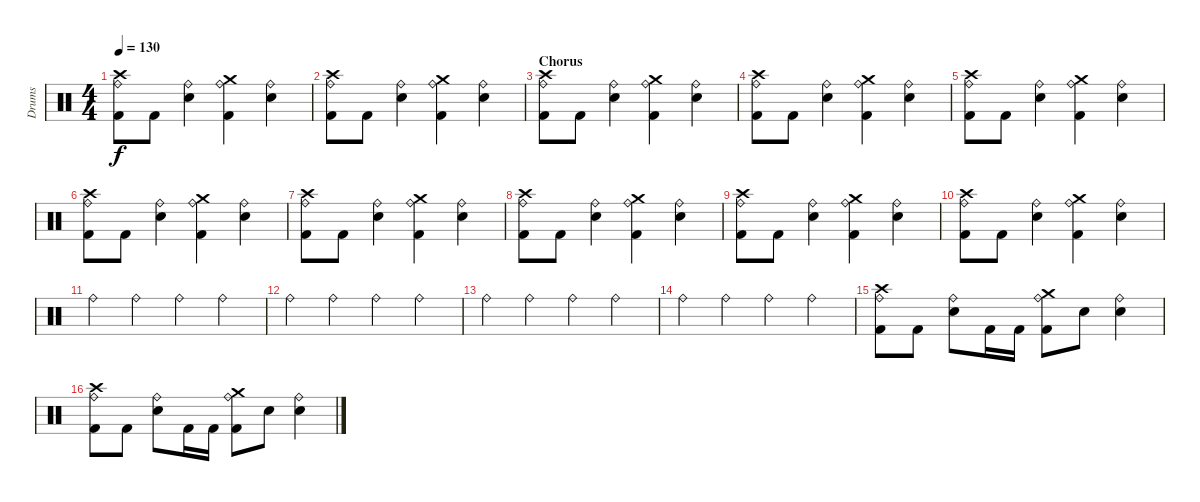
\track ("Drums" "Drums") {instrument percussion}
\staff {score}
\articulation defaults
\ts (4 4)
\tempo 130
\clef neutral
\ks c
("Crash high (hit)" "Ride (bell)" "Kick (hit) 2").8{dy f} "Kick (hit) 2".8 ("Ride (bell)" "Electric Snare (hit)").4 ("Crash medium (hit)" "Ride (bell)" "Kick (hit) 2").4 ("Ride (bell)" "Electric Snare (hit)").4 |
("Crash high (hit)" "Ride (bell)" "Kick (hit) 2").8 "Kick (hit) 2".8 ("Ride (bell)" "Electric Snare (hit)").4 ("Crash medium (hit)" "Ride (bell)" "Kick (hit) 2").4 ("Ride (bell)" "Electric Snare (hit)").4 |
\section ("" "Chorus")
("Crash high (hit)" "Ride (bell)" "Kick (hit) 2").8 "Kick (hit) 2".8 ("Ride (bell)" "Electric Snare (hit)").4 ("Crash medium (hit)" "Ride (bell)" "Kick (hit) 2").4 ("Ride (bell)" "Electric Snare (hit)").4 |
("Crash high (hit)" "Ride (bell)" "Kick (hit) 2").8 "Kick (hit) 2".8 ("Ride (bell)" "Electric Snare (hit)").4 ("Crash medium (hit)" "Ride (bell)" "Kick (hit) 2").4 ("Ride (bell)" "Electric Snare (hit)").4 |
("Crash high (hit)" "Ride (bell)" "Kick (hit) 2").8 "Kick (hit) 2".8 ("Ride (bell)" "Electric Snare (hit)").4 ("Crash medium (hit)" "Ride (bell)" "Kick (hit) 2").4 ("Ride (bell)" "Electric Snare (hit)").4 |
("Crash high (hit)" "Ride (bell)" "Kick (hit) 2").8 "Kick (hit) 2".8 ("Ride (bell)" "Electric Snare (hit)").4 ("Crash medium (hit)" "Ride (bell)" "Kick (hit) 2").4 ("Ride (bell)" "Electric Snare (hit)").4 |
("Crash high (hit)" "Ride (bell)" "Kick (hit) 2").8 "Kick (hit) 2".8 ("Ride (bell)" "Electric Snare (hit)").4 ("Crash medium (hit)" "Ride (bell)" "Kick (hit) 2").4 ("Ride (bell)" "Electric Snare (hit)").4 |
("Crash high (hit)" "Ride (bell)" "Kick (hit) 2").8 "Kick (hit) 2".8 ("Ride (bell)" "Electric Snare (hit)").4 ("Crash medium (hit)" "Ride (bell)" "Kick (hit) 2").4 ("Ride (bell)" "Electric Snare (hit)").4 |
("Crash high (hit)" "Ride (bell)" "Kick (hit) 2").8 "Kick (hit) 2".8 ("Ride (bell)" "Electric Snare (hit)").4 ("Crash medium (hit)" "Ride (bell)" "Kick (hit) 2").4 ("Ride (bell)" "Electric Snare (hit)").4 |
("Crash high (hit)" "Ride (bell)" "Kick (hit) 2").8 "Kick (hit) 2".8 ("Ride (bell)" "Electric Snare (hit)").4 ("Crash medium (hit)" "Ride (bell)" "Kick (hit) 2").4 ("Ride (bell)" "Electric Snare (hit)").4 |
"Ride (bell)".4 "Ride (bell)".4 "Ride (bell)".4 "Ride (bell)".4 |
"Ride (bell)".4 "Ride (bell)".4 "Ride (bell)".4 "Ride (bell)".4 |
"Ride (bell)".4 "Ride (bell)".4 "Ride (bell)".4 "Ride (bell)".4 |
"Ride (bell)".4 "Ride (bell)".4 "Ride (bell)".4 "Ride (bell)".4 |
("Crash high (hit)" "Ride (bell)" "Kick (hit) 2").8 "Kick (hit) 2".8 ("Ride (bell)" "Electric Snare (hit)").8 "Kick (hit) 2".16 "Kick (hit) 2".16 ("Crash medium (hit)" "Ride (bell)" "Kick (hit) 2").8 "Electric Snare (hit)".8 ("Ride (bell)" "Electric Snare (hit)").4 |
("Crash high (hit)" "Ride (bell)" "Kick (hit) 2").8 "Kick (hit) 2".8 ("Ride (bell)" "Electric Snare (hit)").8 "Kick (hit) 2".16 "Kick (hit) 2".16 ("Crash medium (hit)" "Ride (bell)" "Kick (hit) 2").8 "Electric Snare (hit)".8 ("Ride (bell)" "Electric Snare (hit)").4
